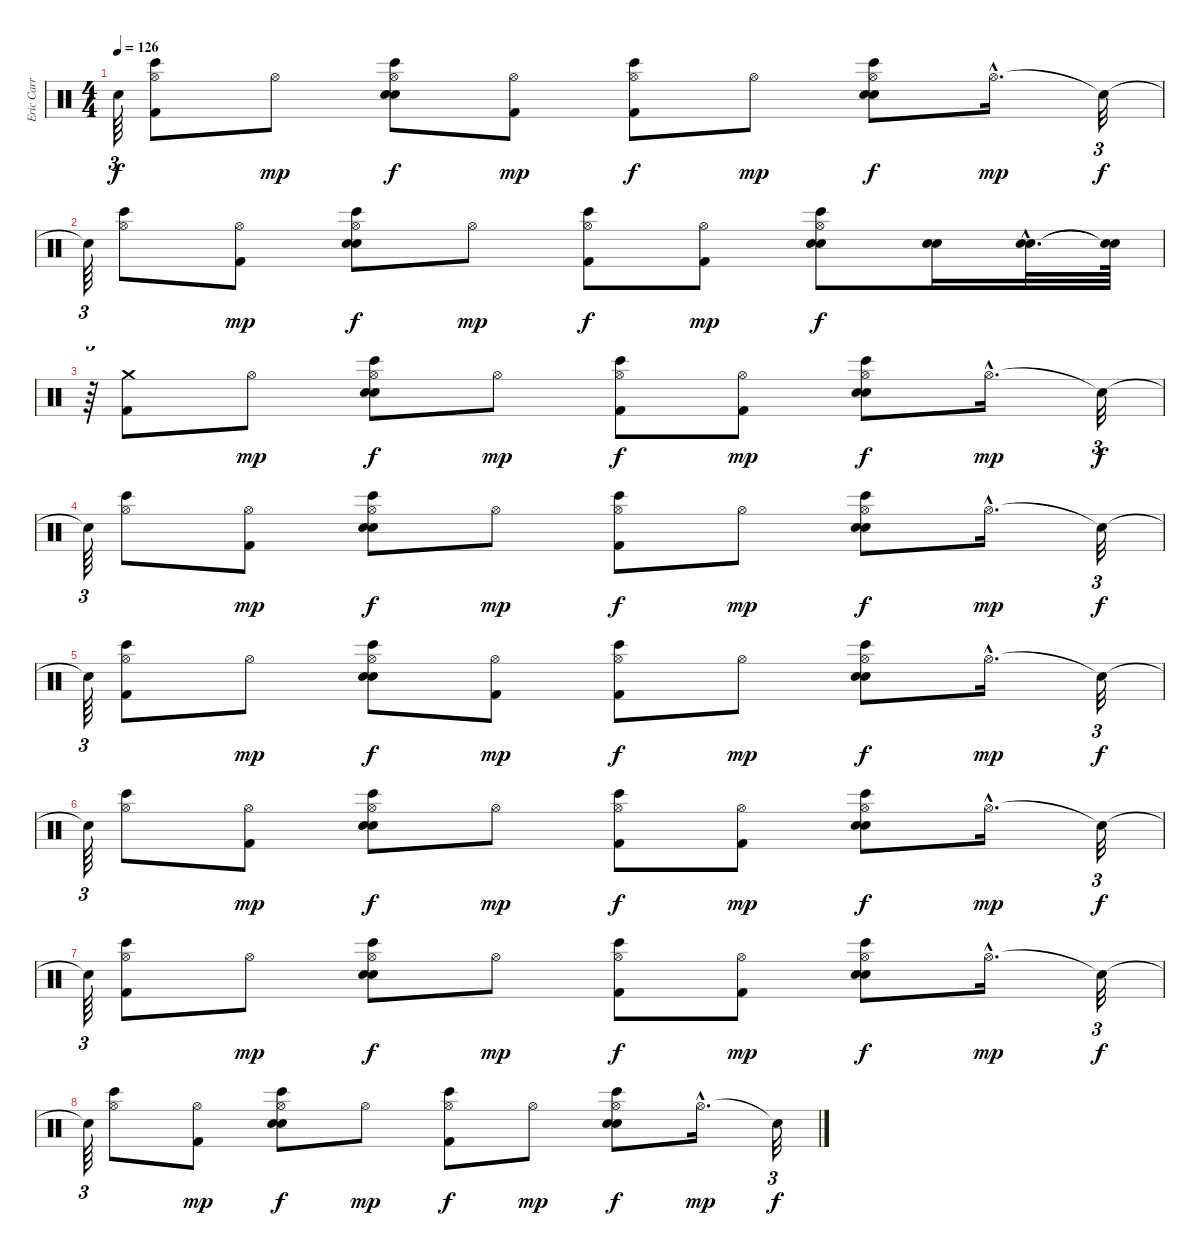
\track ("Eric Carr" "Eric Carr") {instrument percussion}
\staff {score}
\articulation defaults
\ts (4 4)
\tempo 126
\clef neutral
\ks c "Snare (hit)"{t}.64{tu (3 2) dy f}
("Bongo High (hit)" "Hi-Hat (open)" "Kick (hit) 2").8 "Hi-Hat (open)".8{dy mp} ("Bongo High (hit)" "Hi-Hat (open)" "Snare (hit) 2" "Electric Snare (hit)").8{dy f} ("Kick (hit) 2" "Hi-Hat (open)").8{dy mp} ("Bongo High (hit)" "Kick (hit) 2" "Hi-Hat (open)").8{dy f} "Hi-Hat (open)".8{dy mp} ("Bongo High (hit)" "Electric Snare (hit)" "Snare (hit) 2" "Hi-Hat (open)").8{dy f} "Hi-Hat (open)"{hac}.16{d dy mp} "Snare (hit)"{t}.32{tu (3 2) dy f} |
"Snare (hit)"{t}.64{tu (3 2)} ("Bongo High (hit)" "Hi-Hat (open)").8 ("Kick (hit) 2" "Hi-Hat (open)").8{dy mp} ("Bongo High (hit)" "Hi-Hat (open)" "Snare (hit) 2" "Electric Snare (hit)").8{dy f} "Hi-Hat (open)".8{dy mp} ("Bongo High (hit)" "Kick (hit) 2" "Hi-Hat (open)").8{dy f} ("Kick (hit) 2" "Hi-Hat (open)").8{dy mp} ("Bongo High (hit)" "Electric Snare (hit)" "Snare (hit) 2" "Hi-Hat (open)").8{dy f} ("Snare (hit) 2" "Electric Snare (hit)").16 ("Snare (hit) 2"{hac} "Electric Snare (hit)"{hac}).32{d} ("Snare (hit)"{t} "Snare (hit)"{t}).64 |
r.64{tu (3 2)} ("Crash medium (hit)" "Kick (hit) 2").8 "Hi-Hat (open)".8{dy mp} ("Bongo High (hit)" "Hi-Hat (open)" "Snare (hit) 2" "Electric Snare (hit)").8{dy f} "Hi-Hat (open)".8{dy mp} ("Bongo High (hit)" "Kick (hit) 2" "Hi-Hat (open)").8{dy f} ("Kick (hit) 2" "Hi-Hat (open)").8{dy mp} ("Bongo High (hit)" "Electric Snare (hit)" "Snare (hit) 2" "Hi-Hat (open)").8{dy f} "Hi-Hat (open)"{hac}.16{d dy mp} "Snare (hit)"{t}.32{tu (3 2) dy f} |
"Snare (hit)"{t}.64{tu (3 2)} ("Bongo High (hit)" "Hi-Hat (open)").8 ("Kick (hit) 2" "Hi-Hat (open)").8{dy mp} ("Bongo High (hit)" "Hi-Hat (open)" "Snare (hit) 2" "Electric Snare (hit)").8{dy f} "Hi-Hat (open)".8{dy mp} ("Bongo High (hit)" "Kick (hit) 2" "Hi-Hat (open)").8{dy f} "Hi-Hat (open)".8{dy mp} ("Bongo High (hit)" "Electric Snare (hit)" "Snare (hit) 2" "Hi-Hat (open)").8{dy f} "Hi-Hat (open)"{hac}.16{d dy mp} "Snare (hit)"{t}.32{tu (3 2) dy f} |
"Snare (hit)"{t}.64{tu (3 2)} ("Bongo High (hit)" "Hi-Hat (open)" "Kick (hit) 2").8 "Hi-Hat (open)".8{dy mp} ("Bongo High (hit)" "Hi-Hat (open)" "Snare (hit) 2" "Electric Snare (hit)").8{dy f} ("Kick (hit) 2" "Hi-Hat (open)").8{dy mp} ("Bongo High (hit)" "Kick (hit) 2" "Hi-Hat (open)").8{dy f} "Hi-Hat (open)".8{dy mp} ("Bongo High (hit)" "Electric Snare (hit)" "Snare (hit) 2" "Hi-Hat (open)").8{dy f} "Hi-Hat (open)"{hac}.16{d dy mp} "Snare (hit)"{t}.32{tu (3 2) dy f} |
"Snare (hit)"{t}.64{tu (3 2)} ("Bongo High (hit)" "Hi-Hat (open)").8 ("Kick (hit) 2" "Hi-Hat (open)").8{dy mp} ("Bongo High (hit)" "Hi-Hat (open)" "Snare (hit) 2" "Electric Snare (hit)").8{dy f} "Hi-Hat (open)".8{dy mp} ("Bongo High (hit)" "Kick (hit) 2" "Hi-Hat (open)").8{dy f} ("Kick (hit) 2" "Hi-Hat (open)").8{dy mp} ("Bongo High (hit)" "Electric Snare (hit)" "Snare (hit) 2" "Hi-Hat (open)").8{dy f} "Hi-Hat (open)"{hac}.16{d dy mp} "Snare (hit)"{t}.32{tu (3 2) dy f} |
"Snare (hit)"{t}.64{tu (3 2)} ("Hi-Hat (open)" "Bongo High (hit)" "Kick (hit) 2").8 "Hi-Hat (open)".8{dy mp} ("Bongo High (hit)" "Hi-Hat (open)" "Snare (hit) 2" "Electric Snare (hit)").8{dy f} "Hi-Hat (open)".8{dy mp} ("Bongo High (hit)" "Kick (hit) 2" "Hi-Hat (open)").8{dy f} ("Kick (hit) 2" "Hi-Hat (open)").8{dy mp} ("Bongo High (hit)" "Electric Snare (hit)" "Snare (hit) 2" "Hi-Hat (open)").8{dy f} "Hi-Hat (open)"{hac}.16{d dy mp} "Snare (hit)"{t}.32{tu (3 2) dy f} |
"Snare (hit)"{t}.64{tu (3 2)} ("Bongo High (hit)" "Hi-Hat (open)").8 ("Kick (hit) 2" "Hi-Hat (open)").8{dy mp} ("Bongo High (hit)" "Hi-Hat (open)" "Snare (hit) 2" "Electric Snare (hit)").8{dy f} "Hi-Hat (open)".8{dy mp} ("Bongo High (hit)" "Kick (hit) 2" "Hi-Hat (open)").8{dy f} "Hi-Hat (open)".8{dy mp} ("Bongo High (hit)" "Electric Snare (hit)" "Snare (hit) 2" "Hi-Hat (open)").8{dy f} "Hi-Hat (open)"{hac}.16{d dy mp} "Snare (hit)"{t}.32{tu (3 2) dy f}
